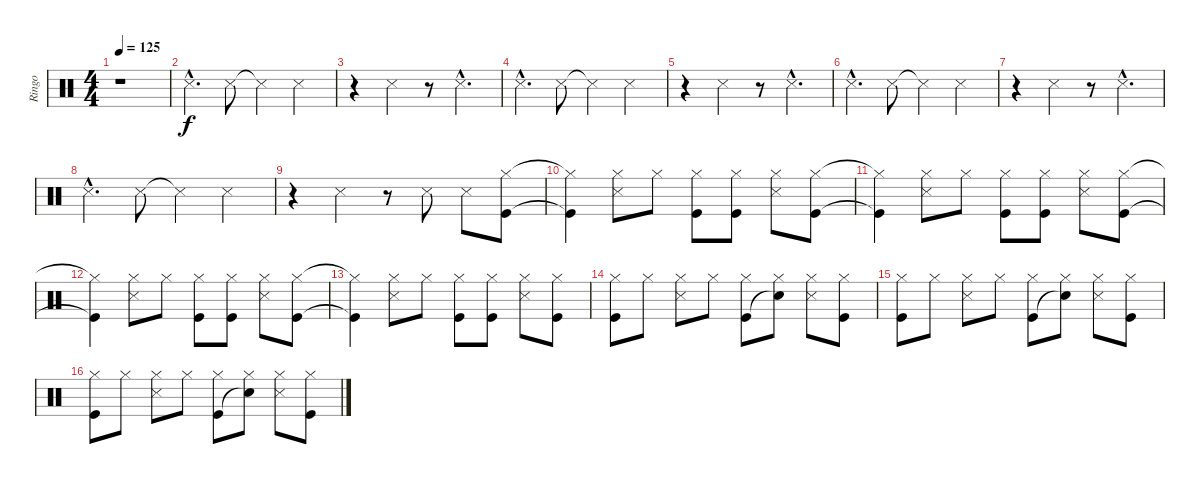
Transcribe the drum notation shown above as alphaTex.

\track ("Ringo" "Ringo") {instrument percussion}
\staff {score}
\articulation defaults
\ts (4 4)
\tempo 125
\clef neutral
\ks c
r.1{dy f} |
"Snare (side stick) 3"{hac}.4{d} "Snare (side stick) 3".8 "Snare (side stick) 3"{t}.4 "Snare (side stick) 3".4 |
r.4 "Snare (side stick) 3".4 r.8 "Snare (side stick) 3"{hac}.4{d} |
"Snare (side stick) 3"{hac}.4{d} "Snare (side stick) 3".8 "Snare (side stick) 3"{t}.4 "Snare (side stick) 3".4 |
r.4 "Snare (side stick) 3".4 r.8 "Snare (side stick) 3"{hac}.4{d} |
"Snare (side stick) 3"{hac}.4{d} "Snare (side stick) 3".8 "Snare (side stick) 3"{t}.4 "Snare (side stick) 3".4 |
r.4 "Snare (side stick) 3".4 r.8 "Snare (side stick) 3"{hac}.4{d} |
"Snare (side stick) 3"{hac}.4{d} "Snare (side stick) 3".8 "Snare (side stick) 3"{t}.4 "Snare (side stick) 3".4 |
r.4 "Snare (side stick) 3".4 r.8 "Snare (side stick) 3".8 "Snare (side stick) 3".8 ("Hi-Hat (closed)" "Kick (hit)").8 |
("Hi-Hat (closed)"{t} "Kick (hit)"{t}).4 ("Hi-Hat (closed)" "Snare (side stick) 3").8 "Hi-Hat (closed)".8 ("Hi-Hat (closed)" "Kick (hit)").8 ("Hi-Hat (closed)" "Kick (hit)").8 ("Hi-Hat (closed)" "Snare (side stick) 3").8 ("Hi-Hat (closed)" "Kick (hit)").8 |
("Hi-Hat (closed)"{t} "Kick (hit)"{t}).4 ("Hi-Hat (closed)" "Snare (side stick) 3").8 "Hi-Hat (closed)".8 ("Hi-Hat (closed)" "Kick (hit)").8 ("Hi-Hat (closed)" "Kick (hit)").8 ("Hi-Hat (closed)" "Snare (side stick) 3").8 ("Hi-Hat (closed)" "Kick (hit)").8 |
("Hi-Hat (closed)"{t} "Kick (hit)"{t}).4 ("Hi-Hat (closed)" "Snare (side stick) 3").8 "Hi-Hat (closed)".8 ("Hi-Hat (closed)" "Kick (hit)").8 ("Hi-Hat (closed)" "Kick (hit)").8 ("Hi-Hat (closed)" "Snare (side stick) 3").8 ("Hi-Hat (closed)" "Kick (hit)").8 |
("Hi-Hat (closed)"{t} "Kick (hit)"{t}).4 ("Hi-Hat (closed)" "Snare (side stick) 3").8 "Hi-Hat (closed)".8 ("Hi-Hat (closed)" "Kick (hit)").8 ("Hi-Hat (closed)" "Kick (hit)").8 ("Hi-Hat (closed)" "Snare (side stick) 3").8 ("Hi-Hat (closed)" "Kick (hit)").8 |
("Hi-Hat (closed)" "Kick (hit)").8 "Hi-Hat (closed)".8 ("Hi-Hat (closed)" "Snare (side stick) 3").8 "Hi-Hat (closed)".8 ("Hi-Hat (closed)" "Kick (hit)").8 ("Hi-Hat (closed)" "Snare (hit)"{t}).8 ("Hi-Hat (closed)" "Snare (side stick) 3").8 ("Hi-Hat (closed)" "Kick (hit)").8 |
("Hi-Hat (closed)" "Kick (hit)").8 "Hi-Hat (closed)".8 ("Hi-Hat (closed)" "Snare (side stick) 3").8 "Hi-Hat (closed)".8 ("Hi-Hat (closed)" "Kick (hit)").8 ("Hi-Hat (closed)" "Snare (hit)"{t}).8 ("Hi-Hat (closed)" "Snare (side stick) 3").8 ("Hi-Hat (closed)" "Kick (hit)").8 |
("Hi-Hat (closed)" "Kick (hit)").8 "Hi-Hat (closed)".8 ("Hi-Hat (closed)" "Snare (side stick) 3").8 "Hi-Hat (closed)".8 ("Hi-Hat (closed)" "Kick (hit)").8 ("Hi-Hat (closed)" "Snare (hit)"{t}).8 ("Hi-Hat (closed)" "Snare (side stick) 3").8 ("Hi-Hat (closed)" "Kick (hit)").8
